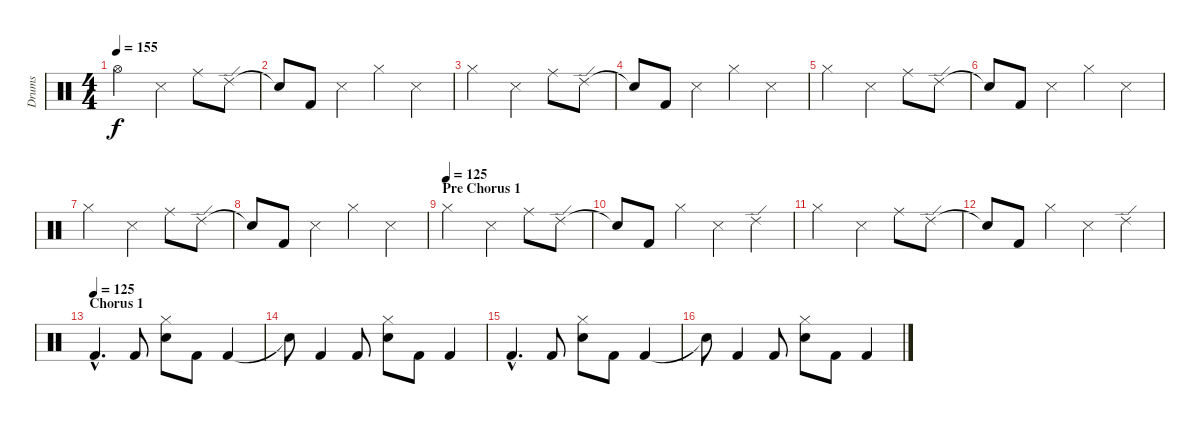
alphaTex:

\track ("Drums" "Drums") {instrument percussion}
\staff {score}
\articulation defaults
\ts (4 4)
\tempo 155
\clef neutral
\ks c "Hi-Hat (open)".2{dy f} "Snare (side stick) 3".4 "Ride (middle)".8 "Ride (edge) 2".8
|
"Snare (hit)"{t}.8 "Kick (hit) 2".8 "Snare (side stick) 3".4 "Hi-Hat (closed)".4 "Snare (side stick) 3".4 |
"Hi-Hat (closed)".2 "Snare (side stick) 3".4 "Ride (middle)".8 "Ride (edge) 2".8 |
"Snare (hit)"{t}.8 "Kick (hit) 2".8 "Snare (side stick) 3".4 "Hi-Hat (closed)".4 "Snare (side stick) 3".4 |
"Hi-Hat (closed)".2 "Snare (side stick) 3".4 "Ride (middle)".8 "Ride (edge) 2".8 |
"Snare (hit)"{t}.8 "Kick (hit) 2".8 "Snare (side stick) 3".4 "Hi-Hat (closed)".4 "Snare (side stick) 3".4 |
"Hi-Hat (closed)".2 "Snare (side stick) 3".4 "Ride (middle)".8 "Ride (edge) 2".8 |
"Snare (hit)"{t}.8 "Kick (hit) 2".8 "Snare (side stick) 3".4 "Hi-Hat (closed)".4 "Snare (side stick) 3".4 |
\section ("" "Pre Chorus 1")
\tempo (125)
"Hi-Hat (closed)".2 "Snare (side stick) 3".4 "Ride (middle)".8 "Ride (edge) 2".8 |
"Snare (hit)"{t}.8 "Kick (hit) 2".8 "Hi-Hat (closed)".4 "Snare (side stick) 3".4 "Ride (edge) 2".4 |
"Hi-Hat (closed)".2 "Snare (side stick) 3".4 "Ride (middle)".8 "Ride (edge) 2".8 |
"Snare (hit)"{t}.8 "Kick (hit) 2".8 "Hi-Hat (closed)".4 "Snare (side stick) 3".4 "Ride (edge) 2".4 |
\section ("" "Chorus 1")
\tempo (125)
"Kick (hit) 2"{hac}.4{d} "Kick (hit) 2".8 ("Hi-Hat (closed)" "Snare (hit) 2").8 "Kick (hit) 2".8 "Kick (hit) 2".4 |
"Snare (hit)"{t}.8 "Kick (hit) 2".4 "Kick (hit) 2".8 ("Hi-Hat (closed)" "Snare (hit) 2").8 "Kick (hit) 2".8 "Kick (hit) 2".4 |
"Kick (hit) 2"{hac}.4{d} "Kick (hit) 2".8 ("Hi-Hat (closed)" "Snare (hit) 2").8 "Kick (hit) 2".8 "Kick (hit) 2".4 |
"Snare (hit)"{t}.8 "Kick (hit) 2".4 "Kick (hit) 2".8 ("Hi-Hat (closed)" "Snare (hit) 2").8 "Kick (hit) 2".8 "Kick (hit) 2".4
